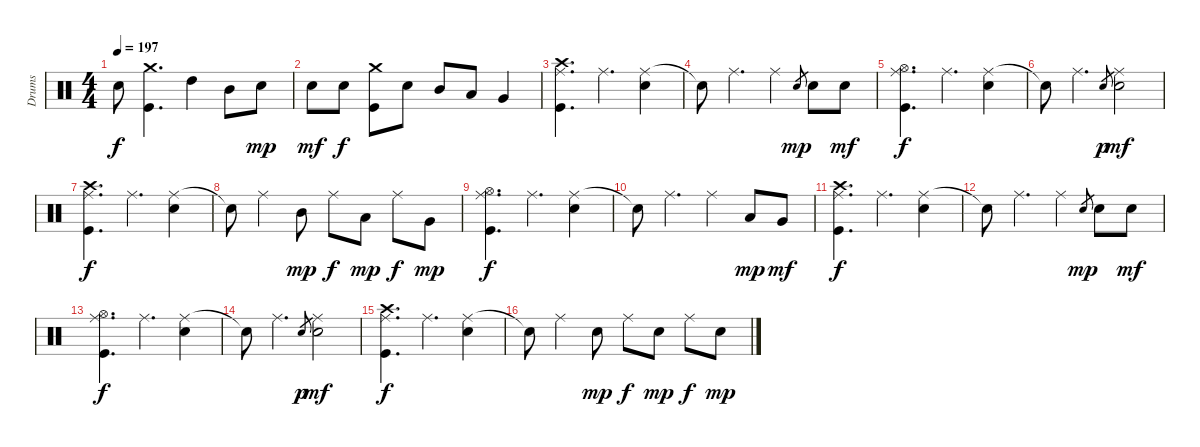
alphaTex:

\track ("Drums" "Drums") {instrument percussion}
\staff {score}
\articulation defaults
\ts (4 4)
\tempo 197
\clef neutral
\ks c "Electric Snare (hit)".8{dy f}
("Crash medium (hit)" "Kick (hit)").4{d} "High Tom (hit)".4 "Mid Tom (hit)".8 "Electric Snare (hit)".8{dy mp} |
"Electric Snare (hit)".8{dy mf} "Electric Snare (hit)".8{dy f} ("Crash medium (hit)" "Kick (hit)").8 "Electric Snare (hit)".8 "Mid Tom (hit)".8 "Low Tom (hit)".8 "Very Low Tom (hit)".4 |
("Crash high (hit)" "Ride (middle)" "Kick (hit)").4{d} "Ride (middle)".4{d} ("Ride (middle)" "Electric Snare (hit)").4 |
"Snare (hit)"{t}.8 "Ride (middle)".4{d} "Ride (middle)".4 "Electric Snare (hit)".8{gr dy mp} "Electric Snare (hit)".8 "Electric Snare (hit)".8{dy mf} |
("Hi-Hat (open)" "Ride (middle)" "Kick (hit)").4{d dy f} "Ride (middle)".4{d} ("Ride (middle)" "Electric Snare (hit)").4 |
"Snare (hit)"{t}.8 "Ride (middle)".4{d} "Electric Snare (hit)".8{gr dy p} ("Ride (middle)" "Electric Snare (hit)").2{dy mf} |
("Crash high (hit)" "Ride (middle)" "Kick (hit)").4{d dy f} "Ride (middle)".4{d} ("Ride (middle)" "Electric Snare (hit)").4 |
"Snare (hit)"{t}.8 "Ride (middle)".4 "Mid Tom (hit)".8{dy mp} "Ride (middle)".8{dy f} "Low Tom (hit)".8{dy mp} "Ride (middle)".8{dy f} "Very Low Tom (hit)".8{dy mp} |
("Hi-Hat (open)" "Ride (middle)" "Kick (hit)").4{d dy f} "Ride (middle)".4{d} ("Ride (middle)" "Electric Snare (hit)").4 |
"Snare (hit)"{t}.8 "Ride (middle)".4{d} "Ride (middle)".4 "Low Tom (hit)".8{dy mp} "Very Low Tom (hit)".8{dy mf} |
("Crash high (hit)" "Ride (middle)" "Kick (hit)").4{d dy f} "Ride (middle)".4{d} ("Ride (middle)" "Electric Snare (hit)").4 |
"Snare (hit)"{t}.8 "Ride (middle)".4{d} "Ride (middle)".4 "Electric Snare (hit)".8{gr dy mp} "Electric Snare (hit)".8 "Electric Snare (hit)".8{dy mf} |
("Hi-Hat (open)" "Ride (middle)" "Kick (hit)").4{d dy f} "Ride (middle)".4{d} ("Ride (middle)" "Electric Snare (hit)").4 |
"Snare (hit)"{t}.8 "Ride (middle)".4{d} "Electric Snare (hit)".8{gr dy p} ("Ride (middle)" "Electric Snare (hit)").2{dy mf} |
("Crash high (hit)" "Ride (middle)" "Kick (hit)").4{d dy f} "Ride (middle)".4{d} ("Ride (middle)" "Electric Snare (hit)").4 |
"Snare (hit)"{t}.8 "Ride (middle)".4 "Electric Snare (hit)".8{dy mp} "Ride (middle)".8{dy f} "Electric Snare (hit)".8{dy mp} "Ride (middle)".8{dy f} "Electric Snare (hit)".8{dy mp}
